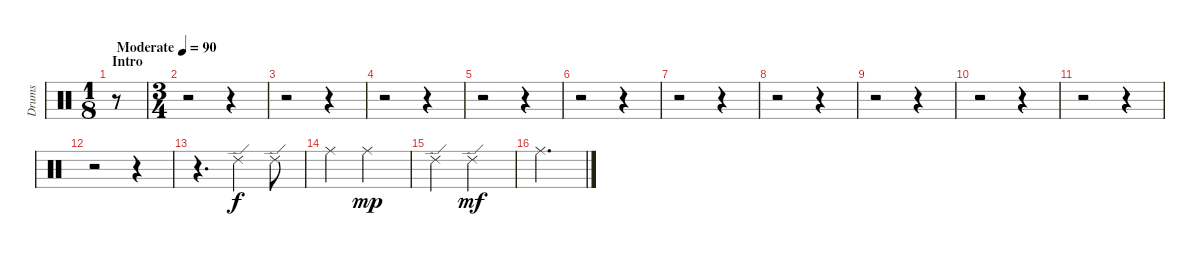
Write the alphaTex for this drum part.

\track ("Drums" "Drums") {instrument percussion}
\staff {score}
\articulation defaults
\ts (1 8)
\section ("" "Intro")
\tempo (90 "Moderate")
\clef neutral
\ks c
r.8{dy f} |
\ts (3 4)
r.2 r.4 |
r.2 r.4 |
r.2 r.4 |
r.2 r.4 |
r.2 r.4 |
r.2 r.4 |
r.2 r.4 |
r.2 r.4 |
r.2 r.4 |
r.2 r.4 |
r.2 r.4 |
r.4{d} "Ride (edge) 2".4 "Ride (edge) 2".8 |
"Ride (middle)".4 "Ride (middle)".2{dy mp} |
"Ride (edge) 2".4 "Ride (edge) 2".2{dy mf} |
"Ride (middle)".2{d}
